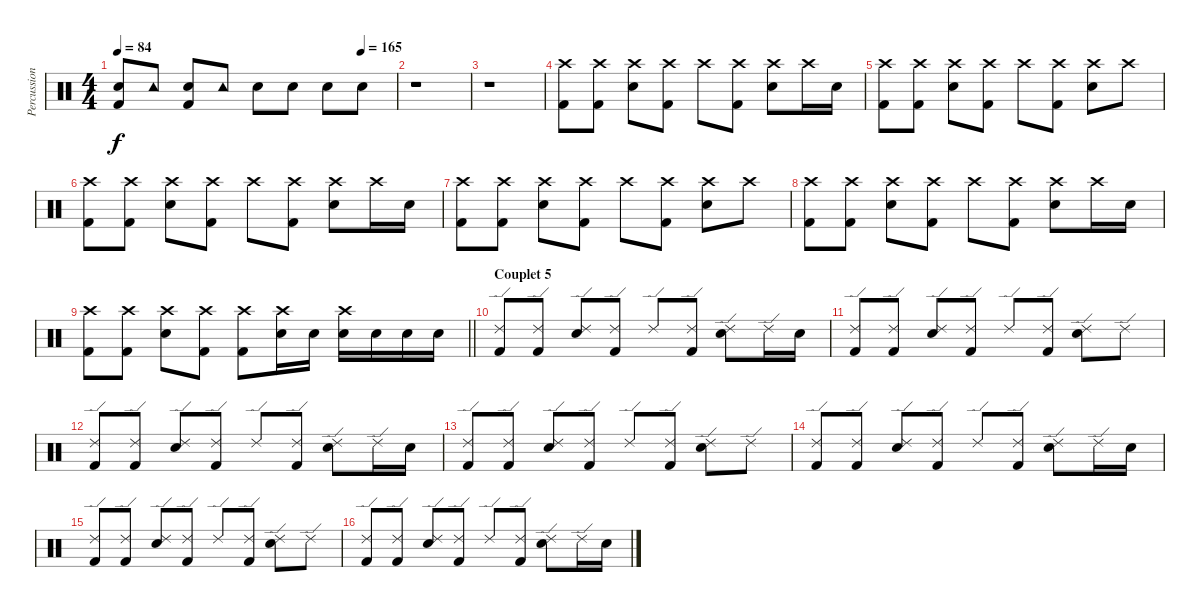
\track ("Percussions" "Percussion") {instrument percussion}
\staff
\articulation defaults
\ts (4 4)
\tempo 84
\tempo (165 0.875)
\clef neutral
\ks c
("Electric Snare (hit)" "Kick (hit) 2").8{dy f} "Tambourine (hit)".8 ("Electric Snare (hit)" "Kick (hit) 2").8 "Tambourine (hit)".8 "Electric Snare (hit)".8 "Electric Snare (hit)".8 "Electric Snare (hit)".8 "Electric Snare (hit)".8 |
r.1 |
r.1 |
("Crash high (hit)" "Kick (hit) 2").8 ("Crash high (hit)" "Kick (hit) 2").8 ("Crash high (hit)" "Electric Snare (hit)").8 ("Crash high (hit)" "Kick (hit) 2").8 "Crash high (hit)".8 ("Crash high (hit)" "Kick (hit) 2").8 ("Crash high (hit)" "Electric Snare (hit)").8 "Crash high (hit)".16 "Electric Snare (hit)".16 |
("Crash high (hit)" "Kick (hit) 2").8 ("Crash high (hit)" "Kick (hit) 2").8 ("Crash high (hit)" "Electric Snare (hit)").8 ("Crash high (hit)" "Kick (hit) 2").8 "Crash high (hit)".8 ("Crash high (hit)" "Kick (hit) 2").8 ("Crash high (hit)" "Electric Snare (hit)").8 "Crash high (hit)".8 |
("Crash high (hit)" "Kick (hit) 2").8 ("Crash high (hit)" "Kick (hit) 2").8 ("Crash high (hit)" "Electric Snare (hit)").8 ("Crash high (hit)" "Kick (hit) 2").8 "Crash high (hit)".8 ("Crash high (hit)" "Kick (hit) 2").8 ("Crash high (hit)" "Electric Snare (hit)").8 "Crash high (hit)".16 "Electric Snare (hit)".16 |
("Crash high (hit)" "Kick (hit) 2").8 ("Crash high (hit)" "Kick (hit) 2").8 ("Crash high (hit)" "Electric Snare (hit)").8 ("Crash high (hit)" "Kick (hit) 2").8 "Crash high (hit)".8 ("Crash high (hit)" "Kick (hit) 2").8 ("Crash high (hit)" "Electric Snare (hit)").8 "Crash high (hit)".8 |
("Crash high (hit)" "Kick (hit) 2").8 ("Crash high (hit)" "Kick (hit) 2").8 ("Crash high (hit)" "Electric Snare (hit)").8 ("Crash high (hit)" "Kick (hit) 2").8 "Crash high (hit)".8 ("Crash high (hit)" "Kick (hit) 2").8 ("Crash high (hit)" "Electric Snare (hit)").8 "Crash high (hit)".16 "Electric Snare (hit)".16 |
\barLineRight lightlight
("Crash high (hit)" "Kick (hit) 2").8 ("Crash high (hit)" "Kick (hit) 2").8 ("Crash high (hit)" "Electric Snare (hit)").8 ("Crash high (hit)" "Kick (hit) 2").8 ("Crash high (hit)" "Kick (hit) 2").8 ("Crash high (hit)" "Electric Snare (hit)").16 "Electric Snare (hit)".16 ("Crash high (hit)" "Electric Snare (hit)").16 "Electric Snare (hit)".16 "Electric Snare (hit)".16 "Electric Snare (hit)".16 |
\section ("" "Couplet 5")
("Ride (edge) 2" "Kick (hit) 2").8 ("Ride (edge) 2" "Kick (hit) 2").8 ("Ride (edge) 2" "Electric Snare (hit)").8 ("Ride (edge) 2" "Kick (hit) 2").8 "Ride (edge) 2".8 ("Ride (edge) 2" "Kick (hit) 2").8 ("Ride (edge) 2" "Electric Snare (hit)").8 "Ride (edge) 2".16 "Electric Snare (hit)".16 |
("Ride (edge) 2" "Kick (hit) 2").8 ("Ride (edge) 2" "Kick (hit) 2").8 ("Ride (edge) 2" "Electric Snare (hit)").8 ("Ride (edge) 2" "Kick (hit) 2").8 "Ride (edge) 2".8 ("Ride (edge) 2" "Kick (hit) 2").8 ("Ride (edge) 2" "Electric Snare (hit)").8 "Ride (edge) 2".8 |
("Ride (edge) 2" "Kick (hit) 2").8 ("Ride (edge) 2" "Kick (hit) 2").8 ("Ride (edge) 2" "Electric Snare (hit)").8 ("Ride (edge) 2" "Kick (hit) 2").8 "Ride (edge) 2".8 ("Ride (edge) 2" "Kick (hit) 2").8 ("Ride (edge) 2" "Electric Snare (hit)").8 "Ride (edge) 2".16 "Electric Snare (hit)".16 |
("Ride (edge) 2" "Kick (hit) 2").8 ("Ride (edge) 2" "Kick (hit) 2").8 ("Ride (edge) 2" "Electric Snare (hit)").8 ("Ride (edge) 2" "Kick (hit) 2").8 "Ride (edge) 2".8 ("Ride (edge) 2" "Kick (hit) 2").8 ("Ride (edge) 2" "Electric Snare (hit)").8 "Ride (edge) 2".8 |
("Ride (edge) 2" "Kick (hit) 2").8 ("Ride (edge) 2" "Kick (hit) 2").8 ("Ride (edge) 2" "Electric Snare (hit)").8 ("Ride (edge) 2" "Kick (hit) 2").8 "Ride (edge) 2".8 ("Ride (edge) 2" "Kick (hit) 2").8 ("Ride (edge) 2" "Electric Snare (hit)").8 "Ride (edge) 2".16 "Electric Snare (hit)".16 |
("Ride (edge) 2" "Kick (hit) 2").8 ("Ride (edge) 2" "Kick (hit) 2").8 ("Ride (edge) 2" "Electric Snare (hit)").8 ("Ride (edge) 2" "Kick (hit) 2").8 "Ride (edge) 2".8 ("Ride (edge) 2" "Kick (hit) 2").8 ("Ride (edge) 2" "Electric Snare (hit)").8 "Ride (edge) 2".8 |
("Ride (edge) 2" "Kick (hit) 2").8 ("Ride (edge) 2" "Kick (hit) 2").8 ("Ride (edge) 2" "Electric Snare (hit)").8 ("Ride (edge) 2" "Kick (hit) 2").8 "Ride (edge) 2".8 ("Ride (edge) 2" "Kick (hit) 2").8 ("Ride (edge) 2" "Electric Snare (hit)").8 "Ride (edge) 2".16 "Electric Snare (hit)".16
